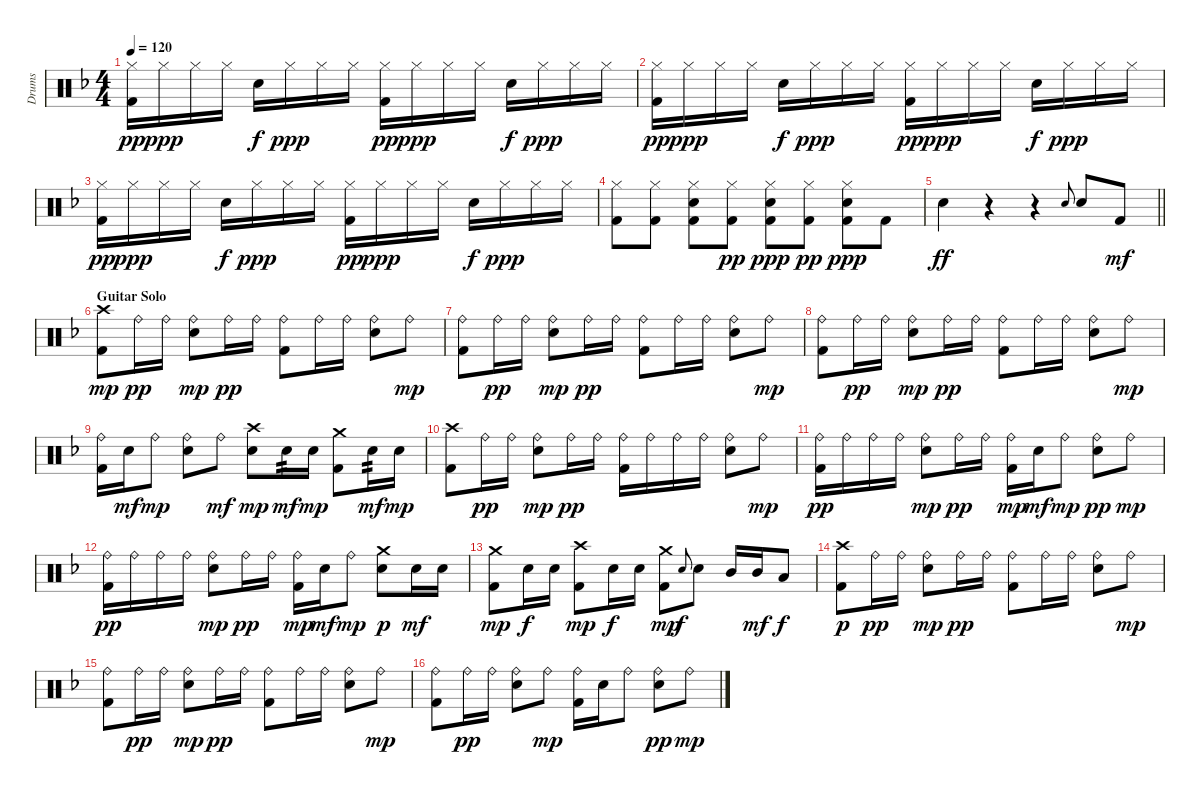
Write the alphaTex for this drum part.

\track ("Drums" "Drums") {instrument percussion}
\staff {score}
\articulation defaults
\ts (4 4)
\tempo 120
\clef neutral
\ks dminor
("Hi-Hat (closed)" "Kick (hit) 2").16{dy pp} "Hi-Hat (closed)".16{dy ppp} "Hi-Hat (closed)".16 "Hi-Hat (closed)".16 "Electric Snare (hit)".16{dy f} "Hi-Hat (closed)".16{dy ppp} "Hi-Hat (closed)".16 "Hi-Hat (closed)".16 ("Hi-Hat (closed)" "Kick (hit) 2").16{dy pp} "Hi-Hat (closed)".16{dy ppp} "Hi-Hat (closed)".16 "Hi-Hat (closed)".16 "Electric Snare (hit)".16{dy f} "Hi-Hat (closed)".16{dy ppp} "Hi-Hat (closed)".16 "Hi-Hat (closed)".16 |
("Hi-Hat (closed)" "Kick (hit) 2").16{dy pp} "Hi-Hat (closed)".16{dy ppp} "Hi-Hat (closed)".16 "Hi-Hat (closed)".16 "Electric Snare (hit)".16{dy f} "Hi-Hat (closed)".16{dy ppp} "Hi-Hat (closed)".16 "Hi-Hat (closed)".16 ("Hi-Hat (closed)" "Kick (hit) 2").16{dy pp} "Hi-Hat (closed)".16{dy ppp} "Hi-Hat (closed)".16 "Hi-Hat (closed)".16 "Electric Snare (hit)".16{dy f} "Hi-Hat (closed)".16{dy ppp} "Hi-Hat (closed)".16 "Hi-Hat (closed)".16 |
("Hi-Hat (closed)" "Kick (hit) 2").16{dy pp} "Hi-Hat (closed)".16{dy ppp} "Hi-Hat (closed)".16 "Hi-Hat (closed)".16 "Electric Snare (hit)".16{dy f} "Hi-Hat (closed)".16{dy ppp} "Hi-Hat (closed)".16 "Hi-Hat (closed)".16 ("Hi-Hat (closed)" "Kick (hit) 2").16{dy pp} "Hi-Hat (closed)".16{dy ppp} "Hi-Hat (closed)".16 "Hi-Hat (closed)".16 "Electric Snare (hit)".16{dy f} "Hi-Hat (closed)".16{dy ppp} "Hi-Hat (closed)".16 "Hi-Hat (closed)".16 |
("Kick (hit) 2" "Hi-Hat (closed)").8 ("Kick (hit) 2" "Hi-Hat (closed)").8 ("Kick (hit) 2" "Hi-Hat (closed)" "Electric Snare (hit)").8 ("Kick (hit) 2" "Hi-Hat (closed)").8{dy pp} ("Kick (hit) 2" "Hi-Hat (closed)" "Electric Snare (hit)").8{dy ppp} ("Kick (hit) 2" "Hi-Hat (closed)").8{dy pp} ("Kick (hit) 2" "Hi-Hat (closed)" "Electric Snare (hit)").8{dy ppp} "Kick (hit) 2".8 |
\barLineRight lightlight "Electric Snare (hit)".4{dy ff}
r.4 r.4 "Electric Snare (hit)".8{gr onbeat} "Electric Snare (hit)".8 "Kick (hit) 2".8{dy mf} |
\section ("" "Guitar Solo")
("Crash high (hit)" "Kick (hit) 2").8{dy mp} "Ride (bell)".16{dy pp} "Ride (bell)".16 ("Ride (bell)" "Electric Snare (hit)").8{dy mp} "Ride (bell)".16{dy pp} "Ride (bell)".16 ("Ride (bell)" "Kick (hit) 2").8 "Ride (bell)".16 "Ride (bell)".16 ("Ride (bell)" "Electric Snare (hit)").8 "Ride (bell)".8{dy mp} |
("Ride (bell)" "Kick (hit) 2").8 "Ride (bell)".16{dy pp} "Ride (bell)".16 ("Ride (bell)" "Electric Snare (hit)").8{dy mp} "Ride (bell)".16{dy pp} "Ride (bell)".16 ("Ride (bell)" "Kick (hit) 2").8 "Ride (bell)".16 "Ride (bell)".16 ("Ride (bell)" "Electric Snare (hit)").8 "Ride (bell)".8{dy mp} |
("Ride (bell)" "Kick (hit) 2").8 "Ride (bell)".16{dy pp} "Ride (bell)".16 ("Ride (bell)" "Electric Snare (hit)").8{dy mp} "Ride (bell)".16{dy pp} "Ride (bell)".16 ("Ride (bell)" "Kick (hit) 2").8 "Ride (bell)".16 "Ride (bell)".16 ("Ride (bell)" "Electric Snare (hit)").8 "Ride (bell)".8{dy mp} |
("Ride (bell)" "Kick (hit) 2").16 "Electric Snare (hit)".16{dy mf} "Ride (bell)".8{dy mp} ("Ride (bell)" "Electric Snare (hit)").8 "Ride (bell)".8{dy mf} ("Electric Snare (hit)" "Crash high (hit)").8{dy mp} "Electric Snare (hit)".16{tp 2 dy mf} "Electric Snare (hit)".16{dy mp} ("Kick (hit) 2" "Crash medium (hit)").8 "Electric Snare (hit)".16{tp 2 dy mf} "Electric Snare (hit)".16{dy mp} |
("Crash high (hit)" "Kick (hit) 2").8 "Ride (bell)".16{dy pp} "Ride (bell)".16 ("Ride (bell)" "Electric Snare (hit)").8{dy mp} "Ride (bell)".16{dy pp} "Ride (bell)".16 ("Ride (bell)" "Kick (hit) 2").16 "Ride (bell)".16 "Ride (bell)".16 "Ride (bell)".16 ("Ride (bell)" "Electric Snare (hit)").8 "Ride (bell)".8{dy mp} |
("Ride (bell)" "Kick (hit) 2").16{dy pp} "Ride (bell)".16 "Ride (bell)".16 "Ride (bell)".16 ("Ride (bell)" "Electric Snare (hit)").8{dy mp} "Ride (bell)".16{dy pp} "Ride (bell)".16 ("Ride (bell)" "Kick (hit) 2").16{dy mp} "Electric Snare (hit)".16{dy mf} "Ride (bell)".8{dy mp} ("Ride (bell)" "Electric Snare (hit)").8{dy pp} "Ride (bell)".8{dy mp} |
("Ride (bell)" "Kick (hit) 2").16{dy pp} "Ride (bell)".16 "Ride (bell)".16 "Ride (bell)".16 ("Ride (bell)" "Electric Snare (hit)").8{dy mp} "Ride (bell)".16{dy pp} "Ride (bell)".16 ("Ride (bell)" "Kick (hit) 2").16{dy mp} "Electric Snare (hit)".16{dy mf} "Ride (bell)".8{dy mp} ("Crash medium (hit)" "Electric Snare (hit)").8{dy p} "Electric Snare (hit)".16{dy mf} "Electric Snare (hit)".16 |
("Kick (hit) 2" "Crash medium (hit)").8{dy mp} "Electric Snare (hit)".16{dy f} "Electric Snare (hit)".16 ("Kick (hit) 2" "Crash high (hit)").8{dy mp} "Electric Snare (hit)".16{dy f} "Electric Snare (hit)".16 ("Kick (hit) 2" "Crash medium (hit)").8{dy mp} "Electric Snare (hit)".8{gr onbeat dy f} "Electric Snare (hit)".8 "Mid Tom (hit)".16 "Mid Tom (hit)".16{dy mf} "Low Tom (hit)".8{dy f} |
("Crash high (hit)" "Kick (hit) 2").8{dy p} "Ride (bell)".16{dy pp} "Ride (bell)".16 ("Ride (bell)" "Electric Snare (hit)").8{dy mp} "Ride (bell)".16{dy pp} "Ride (bell)".16 ("Ride (bell)" "Kick (hit) 2").8 "Ride (bell)".16 "Ride (bell)".16 ("Ride (bell)" "Electric Snare (hit)").8 "Ride (bell)".8{dy mp} |
("Ride (bell)" "Kick (hit) 2").8 "Ride (bell)".16{dy pp} "Ride (bell)".16 ("Ride (bell)" "Electric Snare (hit)").8{dy mp} "Ride (bell)".16{dy pp} "Ride (bell)".16 ("Ride (bell)" "Kick (hit) 2").8 "Ride (bell)".16 "Ride (bell)".16 ("Ride (bell)" "Electric Snare (hit)").8 "Ride (bell)".8{dy mp} |
("Ride (bell)" "Kick (hit) 2").8 "Ride (bell)".16{dy pp} "Ride (bell)".16 ("Ride (bell)" "Electric Snare (hit)").8 "Ride (bell)".8{dy mp} ("Ride (bell)" "Kick (hit) 2").16 "Electric Snare (hit)".16 "Ride (bell)".8 ("Ride (bell)" "Electric Snare (hit)").8{dy pp} "Ride (bell)".8{dy mp}
